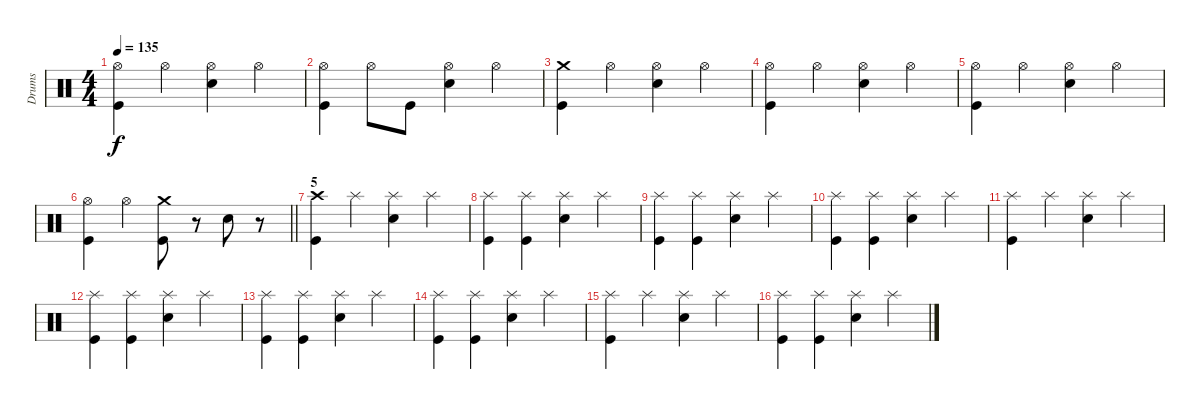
\track ("Drums" "Drums") {instrument percussion}
\staff {score}
\articulation defaults
\ts (4 4)
\tempo 135
\clef neutral
\ks c
("Hi-Hat (open)" "Kick (hit)").4{dy f} "Hi-Hat (open)".4 ("Hi-Hat (open)" "Electric Snare (hit)").4 "Hi-Hat (open)".4 |
("Hi-Hat (open)" "Kick (hit)").4 "Hi-Hat (open)".8 "Kick (hit)".8 ("Hi-Hat (open)" "Electric Snare (hit)").4 "Hi-Hat (open)".4 |
("Crash medium (hit)" "Kick (hit)").4 "Hi-Hat (open)".4 ("Hi-Hat (open)" "Electric Snare (hit)").4 "Hi-Hat (open)".4 |
("Hi-Hat (open)" "Kick (hit)").4 "Hi-Hat (open)".4 ("Hi-Hat (open)" "Electric Snare (hit)").4 "Hi-Hat (open)".4 |
("Hi-Hat (open)" "Kick (hit)").4 "Hi-Hat (open)".4 ("Hi-Hat (open)" "Electric Snare (hit)").4 "Hi-Hat (open)".4 |
\barLineRight lightlight
("Hi-Hat (open)" "Kick (hit)").4 "Hi-Hat (open)".4 ("Crash medium (hit)" "Kick (hit)").8 r.8 "Electric Snare (hit)".8 r.8 |
\section ("" "5")
("Crash high (hit)" "Kick (hit)").4 "Splash (hit)".4 ("Splash (hit)" "Electric Snare (hit)").4 "Splash (hit)".4 |
("Splash (hit)" "Kick (hit)").4 ("Splash (hit)" "Kick (hit)").4 ("Splash (hit)" "Electric Snare (hit)").4 "Splash (hit)".4 |
("Splash (hit)" "Kick (hit)").4 ("Splash (hit)" "Kick (hit)").4 ("Splash (hit)" "Electric Snare (hit)").4 "Splash (hit)".4 |
("Splash (hit)" "Kick (hit)").4 ("Splash (hit)" "Kick (hit)").4 ("Splash (hit)" "Electric Snare (hit)").4 "Splash (hit)".4 |
("Splash (hit)" "Kick (hit)").4 "Splash (hit)".4 ("Splash (hit)" "Electric Snare (hit)").4 "Splash (hit)".4 |
("Splash (hit)" "Kick (hit)").4 ("Splash (hit)" "Kick (hit)").4 ("Splash (hit)" "Electric Snare (hit)").4 "Splash (hit)".4 |
("Splash (hit)" "Kick (hit)").4 ("Splash (hit)" "Kick (hit)").4 ("Splash (hit)" "Electric Snare (hit)").4 "Splash (hit)".4 |
("Splash (hit)" "Kick (hit)").4 ("Splash (hit)" "Kick (hit)").4 ("Splash (hit)" "Electric Snare (hit)").4 "Splash (hit)".4 |
("Splash (hit)" "Kick (hit)").4 "Splash (hit)".4 ("Splash (hit)" "Electric Snare (hit)").4 "Splash (hit)".4 |
("Splash (hit)" "Kick (hit)").4 ("Splash (hit)" "Kick (hit)").4 ("Splash (hit)" "Electric Snare (hit)").4 "Splash (hit)".4
